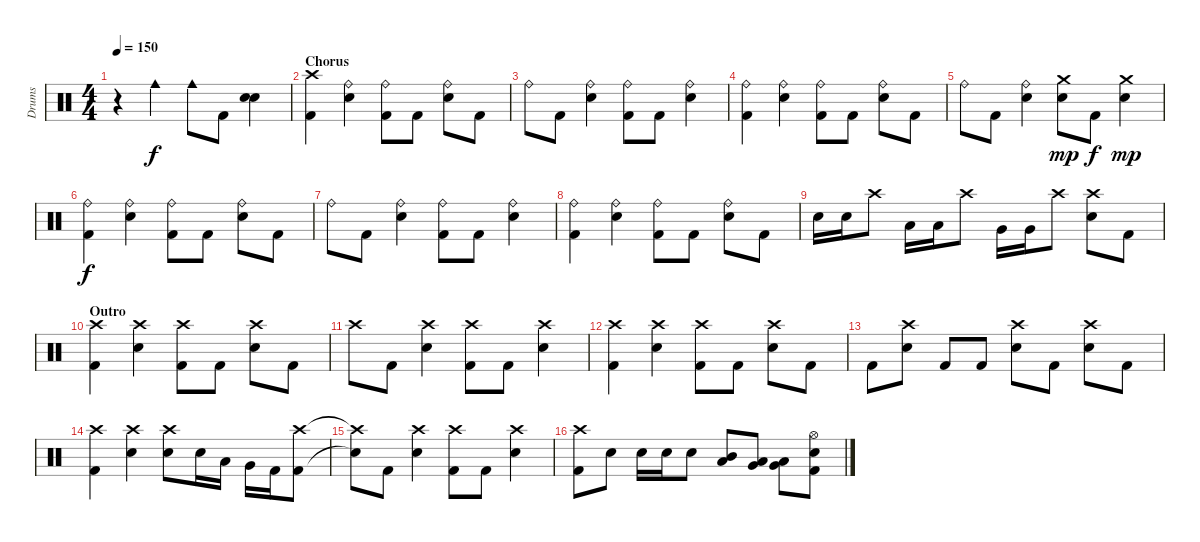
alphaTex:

\track ("Drums" "Drums") {instrument percussion}
\staff {score}
\articulation defaults
\ts (4 4)
\tempo 150
\clef neutral
\ks c
r.4{dy f volume 0} "Cowbell medium (hit)".4{volume 13} "Cowbell medium (hit)".8 "Kick (hit) 2".8 ("Snare (hit) 2" "Snare (hit) 2").4 |
\section ("" "Chorus")
("Crash high (hit)" "Kick (hit) 2").4 ("Ride (bell)" "Snare (hit) 2").4 ("Ride (bell)" "Kick (hit) 2").8 "Kick (hit) 2".8 ("Ride (bell)" "Snare (hit) 2").8 "Kick (hit) 2".8 |
"Ride (bell)".8 "Kick (hit) 2".8 ("Ride (bell)" "Snare (hit) 2").4 ("Ride (bell)" "Kick (hit) 2").8 "Kick (hit) 2".8 ("Ride (bell)" "Snare (hit) 2").4 |
("Ride (bell)" "Kick (hit) 2").4 ("Ride (bell)" "Snare (hit) 2").4 ("Ride (bell)" "Kick (hit) 2").8 "Kick (hit) 2".8 ("Ride (bell)" "Snare (hit) 2").8 "Kick (hit) 2".8 |
"Ride (bell)".8 "Kick (hit) 2".8 ("Ride (bell)" "Snare (hit) 2").4 ("Crash medium (hit)" "Snare (hit) 2").8{dy mp} "Kick (hit) 2".8{dy f} ("Crash medium (hit)" "Snare (hit) 2").4{dy mp} |
("Ride (bell)" "Kick (hit) 2").4{dy f} ("Ride (bell)" "Snare (hit) 2").4 ("Ride (bell)" "Kick (hit) 2").8 "Kick (hit) 2".8 ("Ride (bell)" "Snare (hit) 2").8 "Kick (hit) 2".8 |
"Ride (bell)".8 "Kick (hit) 2".8 ("Ride (bell)" "Snare (hit) 2").4 ("Ride (bell)" "Kick (hit) 2").8 "Kick (hit) 2".8 ("Ride (bell)" "Snare (hit) 2").4 |
("Ride (bell)" "Kick (hit) 2").4 ("Ride (bell)" "Snare (hit) 2").4 ("Ride (bell)" "Kick (hit) 2").8 "Kick (hit) 2".8 ("Ride (bell)" "Snare (hit) 2").8 "Kick (hit) 2".8 |
"Snare (hit) 2".16 "Snare (hit) 2".16 "Crash high (hit)".8 "Low Tom (hit)".16 "Low Tom (hit)".16 "Crash high (hit)".8 "Very Low Tom (hit)".16 "Very Low Tom (hit)".16 "Crash high (hit)".8 ("Crash high (hit)" "Snare (hit) 2").8 "Kick (hit) 2".8 |
\section ("" "Outro")
("Crash high (hit)" "Kick (hit) 2").4 ("Crash high (hit)" "Snare (hit) 2").4 ("Crash high (hit)" "Kick (hit) 2").8 "Kick (hit) 2".8 ("Crash high (hit)" "Snare (hit) 2").8 "Kick (hit) 2".8 |
"Crash high (hit)".8 "Kick (hit) 2".8 ("Crash high (hit)" "Snare (hit) 2").4 ("Crash high (hit)" "Kick (hit) 2").8 "Kick (hit) 2".8 ("Crash high (hit)" "Snare (hit) 2").4 |
("Crash high (hit)" "Kick (hit) 2").4 ("Crash high (hit)" "Snare (hit) 2").4 ("Crash high (hit)" "Kick (hit) 2").8 "Kick (hit) 2".8 ("Crash high (hit)" "Snare (hit) 2").8 "Kick (hit) 2".8 |
"Kick (hit) 2".8 ("Crash high (hit)" "Snare (hit) 2").8 "Kick (hit) 2".8 "Kick (hit) 2".8 ("Crash high (hit)" "Snare (hit) 2").8 "Kick (hit) 2".8 ("Crash high (hit)" "Snare (hit) 2").8 "Kick (hit) 2".8 |
("Crash high (hit)" "Kick (hit) 2").4 ("Crash high (hit)" "Snare (hit) 2").4 ("Crash high (hit)" "Snare (hit) 2").8 "Snare (hit) 2".16 "Low Tom (hit)".16 "Very Low Tom (hit)".16 "Kick (hit) 2".16 ("Crash high (hit)" "Kick (hit) 2").8 |
("Crash high (hit)"{t} "Snare (hit)"{t}).8 "Kick (hit) 2".8 ("Crash high (hit)" "Snare (hit) 2").4 ("Crash high (hit)" "Kick (hit) 2").8 "Kick (hit) 2".8 ("Crash high (hit)" "Snare (hit) 2").4 |
("Crash high (hit)" "Kick (hit) 2").8 "Snare (hit) 2".8 "Snare (hit) 2".16 "Snare (hit) 2".16 "Snare (hit) 2".8 ("Mid Tom (hit)" "Low Tom (hit)").8 ("Low Tom (hit)" "Very Low Tom (hit)").8 ("Very Low Tom (hit)" "Low Floor Tom (hit)").8 ("Hi-Hat (open)" "Snare (hit) 2" "Kick (hit) 2").8
